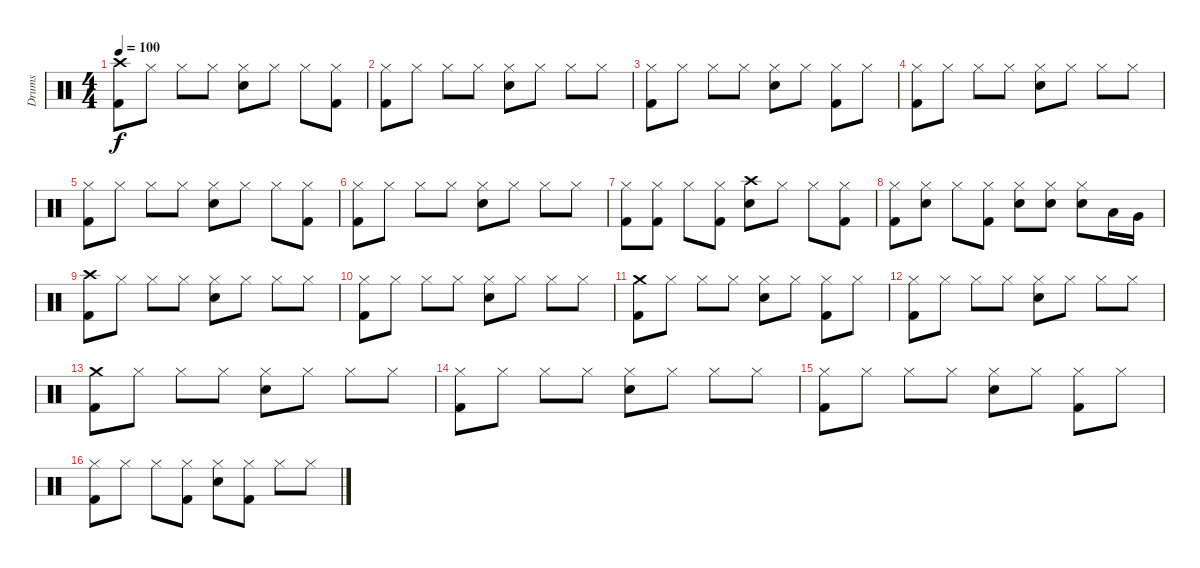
\track ("Drums" "Drums") {instrument percussion}
\staff {score}
\articulation defaults
\ts (4 4)
\tempo 100
\clef neutral
\ks c
("Kick (hit) 2" "Crash high (hit)").8{dy f} "Hi-Hat (closed)".8 "Hi-Hat (closed)".8 "Hi-Hat (closed)".8 ("Hi-Hat (closed)" "Snare (hit) 2").8 "Hi-Hat (closed)".8 "Hi-Hat (closed)".8 ("Kick (hit) 2" "Hi-Hat (closed)").8 |
("Kick (hit) 2" "Hi-Hat (closed)").8 "Hi-Hat (closed)".8 "Hi-Hat (closed)".8 "Hi-Hat (closed)".8 ("Hi-Hat (closed)" "Snare (hit) 2").8 "Hi-Hat (closed)".8 "Hi-Hat (closed)".8 "Hi-Hat (closed)".8 |
("Kick (hit) 2" "Hi-Hat (closed)").8 "Hi-Hat (closed)".8 "Hi-Hat (closed)".8 "Hi-Hat (closed)".8 ("Hi-Hat (closed)" "Snare (hit) 2").8 "Hi-Hat (closed)".8 ("Kick (hit) 2" "Hi-Hat (closed)").8 "Hi-Hat (closed)".8 |
("Kick (hit) 2" "Hi-Hat (closed)").8 "Hi-Hat (closed)".8 "Hi-Hat (closed)".8 "Hi-Hat (closed)".8 ("Hi-Hat (closed)" "Snare (hit) 2").8 "Hi-Hat (closed)".8 "Hi-Hat (closed)".8 "Hi-Hat (closed)".8 |
("Kick (hit) 2" "Hi-Hat (closed)").8 "Hi-Hat (closed)".8 "Hi-Hat (closed)".8 "Hi-Hat (closed)".8 ("Hi-Hat (closed)" "Snare (hit) 2").8 "Hi-Hat (closed)".8 "Hi-Hat (closed)".8 ("Kick (hit) 2" "Hi-Hat (closed)").8 |
("Kick (hit) 2" "Hi-Hat (closed)").8 "Hi-Hat (closed)".8 "Hi-Hat (closed)".8 "Hi-Hat (closed)".8 ("Hi-Hat (closed)" "Snare (hit) 2").8 "Hi-Hat (closed)".8 "Hi-Hat (closed)".8 "Hi-Hat (closed)".8 |
("Kick (hit) 2" "Hi-Hat (closed)").8 ("Kick (hit) 2" "Hi-Hat (closed)").8 "Hi-Hat (closed)".8 ("Kick (hit) 2" "Hi-Hat (closed)").8 ("Crash high (hit)" "Snare (hit) 2").8 "Hi-Hat (closed)".8 "Hi-Hat (closed)".8 ("Kick (hit) 2" "Hi-Hat (closed)").8 |
("Kick (hit) 2" "Hi-Hat (closed)").8 ("Hi-Hat (closed)" "Snare (hit) 2").8 "Hi-Hat (closed)".8 ("Kick (hit) 2" "Hi-Hat (closed)").8 ("Hi-Hat (closed)" "Snare (hit) 2").8 ("Hi-Hat (closed)" "Snare (hit) 2").8 ("Hi-Hat (closed)" "Snare (hit) 2").8 "Low Tom (hit)".16 "Very Low Tom (hit)".16 |
("Kick (hit) 2" "Crash high (hit)").8 "Hi-Hat (closed)".8 "Hi-Hat (closed)".8 "Hi-Hat (closed)".8 ("Hi-Hat (closed)" "Snare (hit) 2").8 "Hi-Hat (closed)".8 "Hi-Hat (closed)".8 "Hi-Hat (closed)".8 |
("Kick (hit) 2" "Hi-Hat (closed)").8 "Hi-Hat (closed)".8 "Hi-Hat (closed)".8 "Hi-Hat (closed)".8 ("Hi-Hat (closed)" "Snare (hit) 2").8 "Hi-Hat (closed)".8 "Hi-Hat (closed)".8 "Hi-Hat (closed)".8 |
("Kick (hit) 2" "Crash medium (hit)").8 "Hi-Hat (closed)".8 "Hi-Hat (closed)".8 "Hi-Hat (closed)".8 ("Hi-Hat (closed)" "Snare (hit) 2").8 "Hi-Hat (closed)".8 ("Kick (hit) 2" "Hi-Hat (closed)").8 "Hi-Hat (closed)".8 |
("Kick (hit) 2" "Hi-Hat (closed)").8 "Hi-Hat (closed)".8 "Hi-Hat (closed)".8 "Hi-Hat (closed)".8 ("Hi-Hat (closed)" "Snare (hit) 2").8 "Hi-Hat (closed)".8 "Hi-Hat (closed)".8 "Hi-Hat (closed)".8 |
("Kick (hit) 2" "Crash medium (hit)").8 "Hi-Hat (closed)".8 "Hi-Hat (closed)".8 "Hi-Hat (closed)".8 ("Hi-Hat (closed)" "Snare (hit) 2").8 "Hi-Hat (closed)".8 "Hi-Hat (closed)".8 "Hi-Hat (closed)".8 |
("Kick (hit) 2" "Hi-Hat (closed)").8 "Hi-Hat (closed)".8 "Hi-Hat (closed)".8 "Hi-Hat (closed)".8 ("Hi-Hat (closed)" "Snare (hit) 2").8 "Hi-Hat (closed)".8 "Hi-Hat (closed)".8 "Hi-Hat (closed)".8 |
("Kick (hit) 2" "Hi-Hat (closed)").8 "Hi-Hat (closed)".8 "Hi-Hat (closed)".8 "Hi-Hat (closed)".8 ("Hi-Hat (closed)" "Snare (hit) 2").8 "Hi-Hat (closed)".8 ("Kick (hit) 2" "Hi-Hat (closed)").8 "Hi-Hat (closed)".8 |
("Kick (hit) 2" "Hi-Hat (closed)").8 "Hi-Hat (closed)".8 "Hi-Hat (closed)".8 ("Kick (hit) 2" "Hi-Hat (closed)").8 ("Hi-Hat (closed)" "Snare (hit) 2").8 ("Kick (hit) 2" "Hi-Hat (closed)").8 "Hi-Hat (closed)".8 "Hi-Hat (closed)".8
